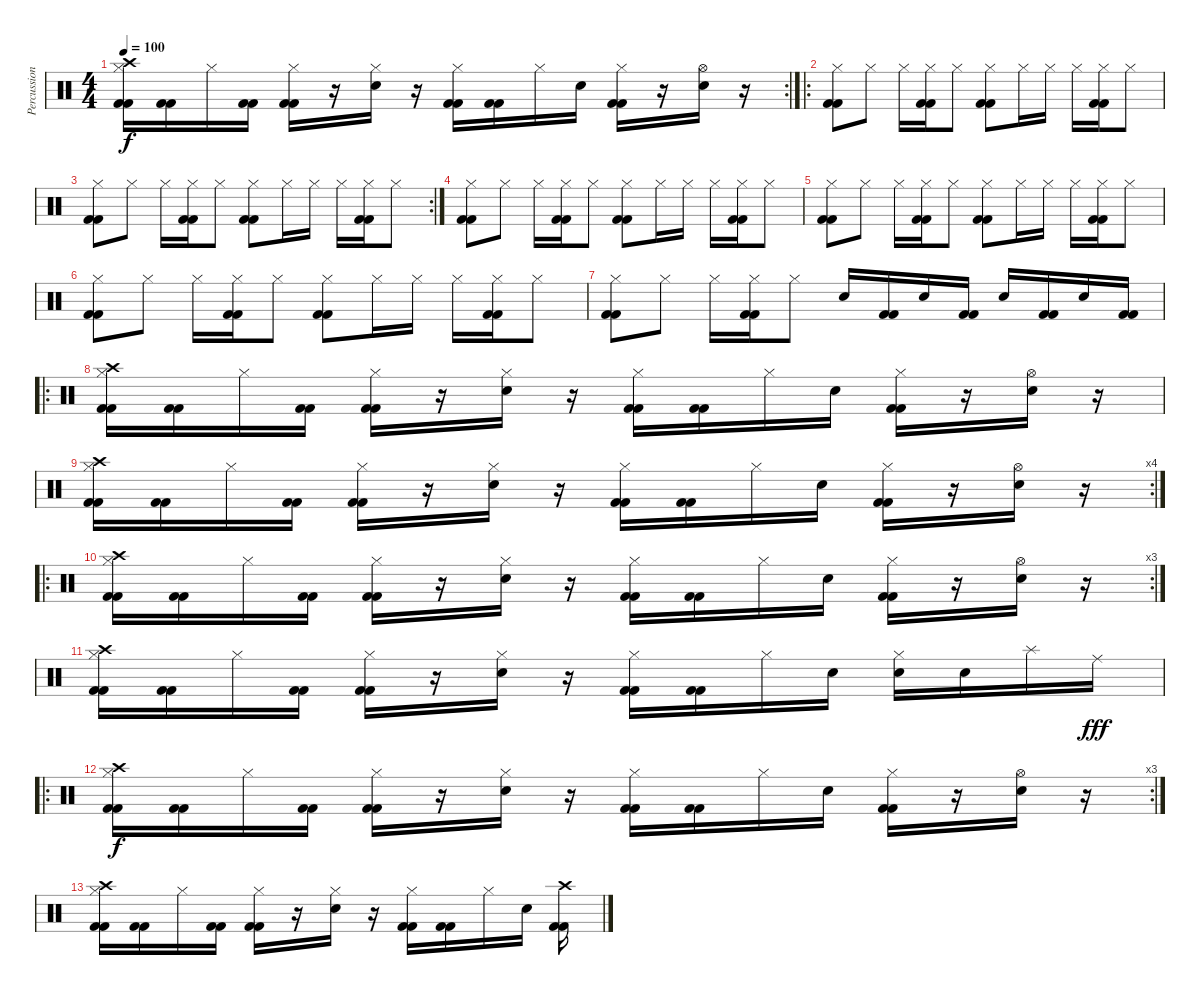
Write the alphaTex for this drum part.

\track ("Percussion" "Percussion") {instrument percussion}
\staff {score}
\articulation defaults
\rc 2
\ts (4 4)
\tempo 100
\clef neutral
\ks c
("Hi-Hat (closed)" "Crash high (hit)" "Kick (hit) 2" "Kick (hit) 2").16{dy f} ("Kick (hit) 2" "Kick (hit) 2").16 "Hi-Hat (closed)".16 ("Kick (hit) 2" "Kick (hit) 2").16 ("Hi-Hat (closed)" "Kick (hit) 2" "Kick (hit) 2").16 r.16 ("Hi-Hat (closed)" "Snare (hit) 2").16 r.16 ("Hi-Hat (closed)" "Kick (hit) 2" "Kick (hit) 2").16 ("Kick (hit) 2" "Kick (hit) 2").16 "Hi-Hat (closed)".16 "Snare (hit) 2".16 ("Hi-Hat (closed)" "Kick (hit) 2" "Kick (hit) 2").16 r.16 ("Hi-Hat (open)" "Snare (hit) 2").16 r.16 |
\ro
("Hi-Hat (closed)" "Kick (hit) 2" "Kick (hit) 2").8 "Hi-Hat (closed)".8 "Hi-Hat (closed)".16 ("Hi-Hat (closed)" "Kick (hit) 2" "Kick (hit) 2").16 "Hi-Hat (closed)".8 ("Hi-Hat (closed)" "Kick (hit) 2" "Kick (hit) 2").8 "Hi-Hat (closed)".16 "Hi-Hat (closed)".16 "Hi-Hat (closed)".16 ("Hi-Hat (closed)" "Kick (hit) 2" "Kick (hit) 2").16 "Hi-Hat (closed)".8 |
\rc 2
("Hi-Hat (closed)" "Kick (hit) 2" "Kick (hit) 2").8 "Hi-Hat (closed)".8 "Hi-Hat (closed)".16 ("Hi-Hat (closed)" "Kick (hit) 2" "Kick (hit) 2").16 "Hi-Hat (closed)".8 ("Hi-Hat (closed)" "Kick (hit) 2" "Kick (hit) 2").8 "Hi-Hat (closed)".16 "Hi-Hat (closed)".16 "Hi-Hat (closed)".16 ("Hi-Hat (closed)" "Kick (hit) 2" "Kick (hit) 2").16 "Hi-Hat (closed)".8 |
("Hi-Hat (closed)" "Kick (hit) 2" "Kick (hit) 2").8 "Hi-Hat (closed)".8 "Hi-Hat (closed)".16 ("Hi-Hat (closed)" "Kick (hit) 2" "Kick (hit) 2").16 "Hi-Hat (closed)".8 ("Hi-Hat (closed)" "Kick (hit) 2" "Kick (hit) 2").8 "Hi-Hat (closed)".16 "Hi-Hat (closed)".16 "Hi-Hat (closed)".16 ("Hi-Hat (closed)" "Kick (hit) 2" "Kick (hit) 2").16 "Hi-Hat (closed)".8 |
("Hi-Hat (closed)" "Kick (hit) 2" "Kick (hit) 2").8 "Hi-Hat (closed)".8 "Hi-Hat (closed)".16 ("Hi-Hat (closed)" "Kick (hit) 2" "Kick (hit) 2").16 "Hi-Hat (closed)".8 ("Hi-Hat (closed)" "Kick (hit) 2" "Kick (hit) 2").8 "Hi-Hat (closed)".16 "Hi-Hat (closed)".16 "Hi-Hat (closed)".16 ("Hi-Hat (closed)" "Kick (hit) 2" "Kick (hit) 2").16 "Hi-Hat (closed)".8 |
("Hi-Hat (closed)" "Kick (hit) 2" "Kick (hit) 2").8 "Hi-Hat (closed)".8 "Hi-Hat (closed)".16 ("Hi-Hat (closed)" "Kick (hit) 2" "Kick (hit) 2").16 "Hi-Hat (closed)".8 ("Hi-Hat (closed)" "Kick (hit) 2" "Kick (hit) 2").8 "Hi-Hat (closed)".16 "Hi-Hat (closed)".16 "Hi-Hat (closed)".16 ("Hi-Hat (closed)" "Kick (hit) 2" "Kick (hit) 2").16 "Hi-Hat (closed)".8 |
("Hi-Hat (closed)" "Kick (hit) 2" "Kick (hit) 2").8 "Hi-Hat (closed)".8 "Hi-Hat (closed)".16 ("Hi-Hat (closed)" "Kick (hit) 2" "Kick (hit) 2").16 "Hi-Hat (closed)".8 "Snare (hit) 2".16 ("Kick (hit) 2" "Kick (hit) 2").16 "Snare (hit) 2".16 ("Kick (hit) 2" "Kick (hit) 2").16 "Snare (hit) 2".16 ("Kick (hit) 2" "Kick (hit) 2").16 "Snare (hit) 2".16 ("Kick (hit) 2" "Kick (hit) 2").16 |
\ro
("Hi-Hat (closed)" "Crash high (hit)" "Kick (hit) 2" "Kick (hit) 2").16 ("Kick (hit) 2" "Kick (hit) 2").16 "Hi-Hat (closed)".16 ("Kick (hit) 2" "Kick (hit) 2").16 ("Hi-Hat (closed)" "Kick (hit) 2" "Kick (hit) 2").16 r.16 ("Hi-Hat (closed)" "Snare (hit) 2").16 r.16 ("Hi-Hat (closed)" "Kick (hit) 2" "Kick (hit) 2").16 ("Kick (hit) 2" "Kick (hit) 2").16 "Hi-Hat (closed)".16 "Snare (hit) 2".16 ("Hi-Hat (closed)" "Kick (hit) 2" "Kick (hit) 2").16 r.16 ("Hi-Hat (open)" "Snare (hit) 2").16 r.16 |
\rc 4
("Hi-Hat (closed)" "Crash high (hit)" "Kick (hit) 2" "Kick (hit) 2").16 ("Kick (hit) 2" "Kick (hit) 2").16 "Hi-Hat (closed)".16 ("Kick (hit) 2" "Kick (hit) 2").16 ("Hi-Hat (closed)" "Kick (hit) 2" "Kick (hit) 2").16 r.16 ("Hi-Hat (closed)" "Snare (hit) 2").16 r.16 ("Hi-Hat (closed)" "Kick (hit) 2" "Kick (hit) 2").16 ("Kick (hit) 2" "Kick (hit) 2").16 "Hi-Hat (closed)".16 "Snare (hit) 2".16 ("Hi-Hat (closed)" "Kick (hit) 2" "Kick (hit) 2").16 r.16 ("Hi-Hat (open)" "Snare (hit) 2").16 r.16 |
\ro
\rc 3
("Hi-Hat (closed)" "Crash high (hit)" "Kick (hit) 2" "Kick (hit) 2").16 ("Kick (hit) 2" "Kick (hit) 2").16 "Hi-Hat (closed)".16 ("Kick (hit) 2" "Kick (hit) 2").16 ("Hi-Hat (closed)" "Kick (hit) 2" "Kick (hit) 2").16 r.16 ("Hi-Hat (closed)" "Snare (hit) 2").16 r.16 ("Hi-Hat (closed)" "Kick (hit) 2" "Kick (hit) 2").16 ("Kick (hit) 2" "Kick (hit) 2").16 "Hi-Hat (closed)".16 "Snare (hit) 2".16 ("Hi-Hat (closed)" "Kick (hit) 2" "Kick (hit) 2").16 r.16 ("Hi-Hat (open)" "Snare (hit) 2").16 r.16 |
("Hi-Hat (closed)" "Crash high (hit)" "Kick (hit) 2" "Kick (hit) 2").16 ("Kick (hit) 2" "Kick (hit) 2").16 "Hi-Hat (closed)".16 ("Kick (hit) 2" "Kick (hit) 2").16 ("Hi-Hat (closed)" "Kick (hit) 2" "Kick (hit) 2").16 r.16 ("Hi-Hat (closed)" "Snare (hit) 2").16 r.16 ("Hi-Hat (closed)" "Kick (hit) 2" "Kick (hit) 2").16 ("Kick (hit) 2" "Kick (hit) 2").16 "Hi-Hat (closed)".16 "Snare (hit) 2".16 ("Hi-Hat (closed)" "Snare (hit) 2").16 "Snare (hit) 2".16 "Splash (hit)".16 "Ride (middle)".16{dy fff} |
\ro
\rc 3
("Hi-Hat (closed)" "Crash high (hit)" "Kick (hit) 2" "Kick (hit) 2").16{dy f} ("Kick (hit) 2" "Kick (hit) 2").16 "Hi-Hat (closed)".16 ("Kick (hit) 2" "Kick (hit) 2").16 ("Hi-Hat (closed)" "Kick (hit) 2" "Kick (hit) 2").16 r.16 ("Hi-Hat (closed)" "Snare (hit) 2").16 r.16 ("Hi-Hat (closed)" "Kick (hit) 2" "Kick (hit) 2").16 ("Kick (hit) 2" "Kick (hit) 2").16 "Hi-Hat (closed)".16 "Snare (hit) 2".16 ("Hi-Hat (closed)" "Kick (hit) 2" "Kick (hit) 2").16 r.16 ("Hi-Hat (open)" "Snare (hit) 2").16 r.16 |
("Hi-Hat (closed)" "Crash high (hit)" "Kick (hit) 2" "Kick (hit) 2").16 ("Kick (hit) 2" "Kick (hit) 2").16 "Hi-Hat (closed)".16 ("Kick (hit) 2" "Kick (hit) 2").16 ("Hi-Hat (closed)" "Kick (hit) 2" "Kick (hit) 2").16 r.16 ("Hi-Hat (closed)" "Snare (hit) 2").16 r.16 ("Hi-Hat (closed)" "Kick (hit) 2" "Kick (hit) 2").16 ("Kick (hit) 2" "Kick (hit) 2").16 "Hi-Hat (closed)".16 "Snare (hit) 2".16 ("Crash high (hit)" "Kick (hit) 2" "Kick (hit) 2").16
